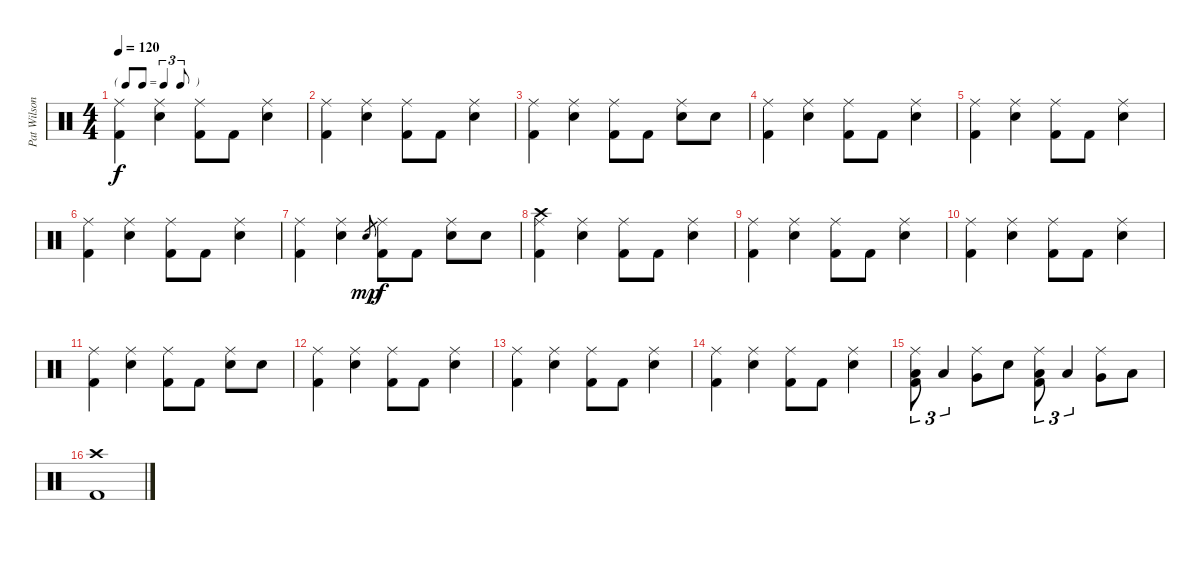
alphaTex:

\track ("Pat Wilson - Drums" "Pat Wilson") {instrument percussion}
\staff {score}
\articulation defaults
\ts (4 4)
\tf triplet8th
\tempo 120
\clef neutral
\ks c
("Ride (middle)" "Kick (hit) 2").4{dy f} ("Ride (middle)" "Electric Snare (hit)").4 ("Ride (middle)" "Kick (hit) 2").8 "Kick (hit) 2".8 ("Ride (middle)" "Electric Snare (hit)").4 |
("Ride (middle)" "Kick (hit) 2").4 ("Ride (middle)" "Electric Snare (hit)").4 ("Ride (middle)" "Kick (hit) 2").8 "Kick (hit) 2".8 ("Ride (middle)" "Electric Snare (hit)").4 |
("Ride (middle)" "Kick (hit) 2").4 ("Ride (middle)" "Electric Snare (hit)").4 ("Ride (middle)" "Kick (hit) 2").8 "Kick (hit) 2".8 ("Ride (middle)" "Electric Snare (hit)").8 "Electric Snare (hit)".8 |
("Ride (middle)" "Kick (hit) 2").4 ("Ride (middle)" "Electric Snare (hit)").4 ("Ride (middle)" "Kick (hit) 2").8 "Kick (hit) 2".8 ("Ride (middle)" "Electric Snare (hit)").4 |
("Ride (middle)" "Kick (hit) 2").4 ("Ride (middle)" "Electric Snare (hit)").4 ("Ride (middle)" "Kick (hit) 2").8 "Kick (hit) 2".8 ("Ride (middle)" "Electric Snare (hit)").4 |
("Ride (middle)" "Kick (hit) 2").4 ("Ride (middle)" "Electric Snare (hit)").4 ("Ride (middle)" "Kick (hit) 2").8 "Kick (hit) 2".8 ("Ride (middle)" "Electric Snare (hit)").4 |
("Ride (middle)" "Kick (hit) 2").4 ("Ride (middle)" "Electric Snare (hit)").4 "Electric Snare (hit)".8{gr dy mp} ("Ride (middle)" "Kick (hit) 2").8{dy f} "Kick (hit) 2".8 ("Ride (middle)" "Electric Snare (hit)").8 "Electric Snare (hit)".8 |
("Ride (middle)" "Kick (hit) 2" "Crash high (hit)").4 ("Ride (middle)" "Electric Snare (hit)").4 ("Ride (middle)" "Kick (hit) 2").8 "Kick (hit) 2".8 ("Ride (middle)" "Electric Snare (hit)").4 |
("Ride (middle)" "Kick (hit) 2").4 ("Ride (middle)" "Electric Snare (hit)").4 ("Ride (middle)" "Kick (hit) 2").8 "Kick (hit) 2".8 ("Ride (middle)" "Electric Snare (hit)").4 |
("Ride (middle)" "Kick (hit) 2").4 ("Ride (middle)" "Electric Snare (hit)").4 ("Ride (middle)" "Kick (hit) 2").8 "Kick (hit) 2".8 ("Ride (middle)" "Electric Snare (hit)").4 |
("Ride (middle)" "Kick (hit) 2").4 ("Ride (middle)" "Electric Snare (hit)").4 ("Ride (middle)" "Kick (hit) 2").8 "Kick (hit) 2".8 ("Ride (middle)" "Electric Snare (hit)").8 "Electric Snare (hit)".8 |
("Ride (middle)" "Kick (hit) 2").4 ("Ride (middle)" "Electric Snare (hit)").4 ("Ride (middle)" "Kick (hit) 2").8 "Kick (hit) 2".8 ("Ride (middle)" "Electric Snare (hit)").4 |
("Ride (middle)" "Kick (hit) 2").4 ("Ride (middle)" "Electric Snare (hit)").4 ("Ride (middle)" "Kick (hit) 2").8 "Kick (hit) 2".8 ("Ride (middle)" "Electric Snare (hit)").4 |
("Ride (middle)" "Kick (hit) 2").4 ("Ride (middle)" "Electric Snare (hit)").4 ("Ride (middle)" "Kick (hit) 2").8 "Kick (hit) 2".8 ("Ride (middle)" "Electric Snare (hit)").4 |
("Ride (middle)" "Kick (hit) 2" "Low Tom (hit)").8{tu (3 2)} "Low Tom (hit)".4{tu (3 2)} ("Ride (middle)" "Very Low Tom (hit)").8 "Electric Snare (hit)".8 ("Ride (middle)" "Kick (hit) 2" "Low Tom (hit)").8{tu (3 2)} "Low Tom (hit)".4{tu (3 2)} ("Ride (middle)" "Very Low Tom (hit)").8 "Low Tom (hit)".8 |
("Crash high (hit)" "Kick (hit) 2").1
